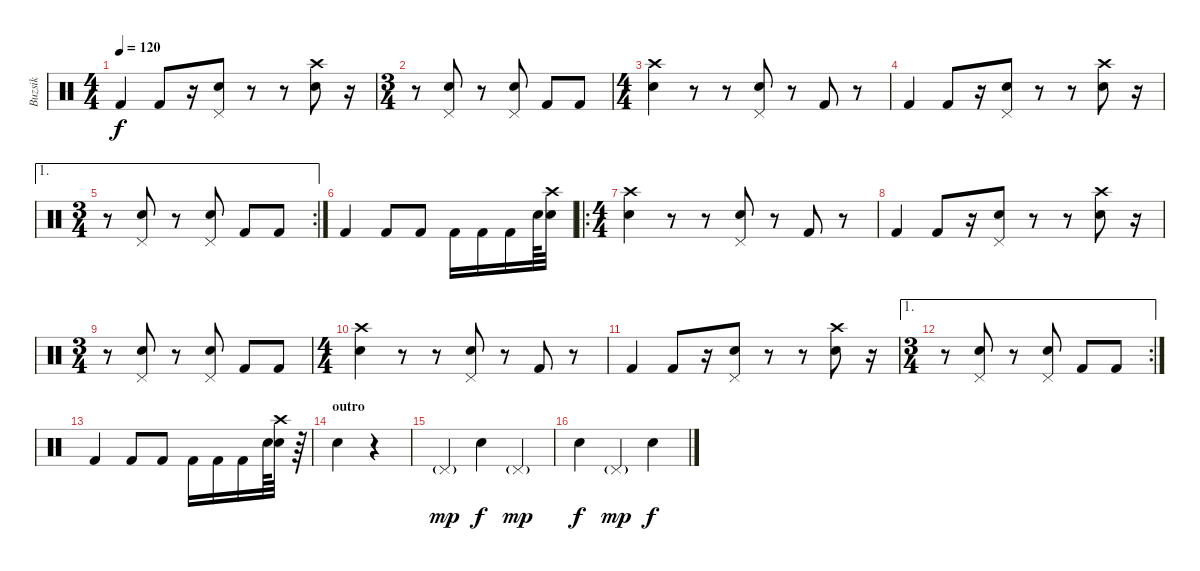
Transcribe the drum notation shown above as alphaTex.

\track ("Buzsik" "Buzsik") {instrument percussion}
\staff {score}
\articulation defaults
\ts (4 4)
\tempo 120
\clef neutral
\ks c "Kick (hit) 2".4{dy f} "Kick (hit) 2".8
r.16 ("Snare (hit) 2" "Pedal Hi-Hat (hit)").8 r.8 r.8 ("Crash high (hit)" "Snare (hit) 2").8 r.16 |
\ts (3 4)
r.8 ("Snare (hit) 2" "Pedal Hi-Hat (hit)").8 r.8 ("Snare (hit) 2" "Pedal Hi-Hat (hit)").8 "Kick (hit) 2".8 "Kick (hit) 2".8 |
\ts (4 4)
("Snare (hit) 2" "Crash high (hit)").4 r.8 r.8 ("Snare (hit) 2" "Pedal Hi-Hat (hit)").8 r.8 "Kick (hit) 2".8 r.8 |
"Kick (hit) 2".4 "Kick (hit) 2".8 r.16 ("Snare (hit) 2" "Pedal Hi-Hat (hit)").8 r.8 r.8 ("Crash high (hit)" "Snare (hit) 2").8 r.16 |
\ae 1
\rc 2
\ts (3 4)
r.8 ("Snare (hit) 2" "Pedal Hi-Hat (hit)").8 r.8 ("Snare (hit) 2" "Pedal Hi-Hat (hit)").8 "Kick (hit) 2".8 "Kick (hit) 2".8 |
"Kick (hit) 2".4 "Kick (hit) 2".8 "Kick (hit) 2".8 "Kick (hit) 2".16 "Kick (hit) 2".16 "Kick (hit) 2".16 "Snare (hit) 2".64 ("Crash high (hit)" "Snare (hit) 2").32 |
\ro
\ts (4 4)
("Snare (hit) 2" "Crash high (hit)").4 r.8 r.8 ("Snare (hit) 2" "Pedal Hi-Hat (hit)").8 r.8 "Kick (hit) 2".8 r.8 |
"Kick (hit) 2".4 "Kick (hit) 2".8 r.16 ("Snare (hit) 2" "Pedal Hi-Hat (hit)").8 r.8 r.8 ("Crash high (hit)" "Snare (hit) 2").8 r.16 |
\ts (3 4)
r.8 ("Snare (hit) 2" "Pedal Hi-Hat (hit)").8 r.8 ("Snare (hit) 2" "Pedal Hi-Hat (hit)").8 "Kick (hit) 2".8 "Kick (hit) 2".8 |
\ts (4 4)
("Snare (hit) 2" "Crash high (hit)").4 r.8 r.8 ("Snare (hit) 2" "Pedal Hi-Hat (hit)").8 r.8 "Kick (hit) 2".8 r.8 |
"Kick (hit) 2".4 "Kick (hit) 2".8 r.16 ("Snare (hit) 2" "Pedal Hi-Hat (hit)").8 r.8 r.8 ("Crash high (hit)" "Snare (hit) 2").8 r.16 |
\ae 1
\rc 2
\ts (3 4)
r.8 ("Snare (hit) 2" "Pedal Hi-Hat (hit)").8 r.8 ("Snare (hit) 2" "Pedal Hi-Hat (hit)").8 "Kick (hit) 2".8 "Kick (hit) 2".8 |
"Kick (hit) 2".4 "Kick (hit) 2".8 "Kick (hit) 2".8 "Kick (hit) 2".16 "Kick (hit) 2".16 "Kick (hit) 2".16 "Snare (hit) 2".64 ("Crash high (hit)" "Snare (hit) 2").32 r.64 |
\section ("" "outro")
"Snare (hit) 2".4 r.4 |
"Pedal Hi-Hat (hit)"{g}.4{dy mp} "Snare (hit) 2".4{dy f} "Pedal Hi-Hat (hit)"{g}.4{dy mp} |
"Snare (hit) 2".4{dy f} "Pedal Hi-Hat (hit)"{g}.4{dy mp} "Snare (hit) 2".4{dy f}
